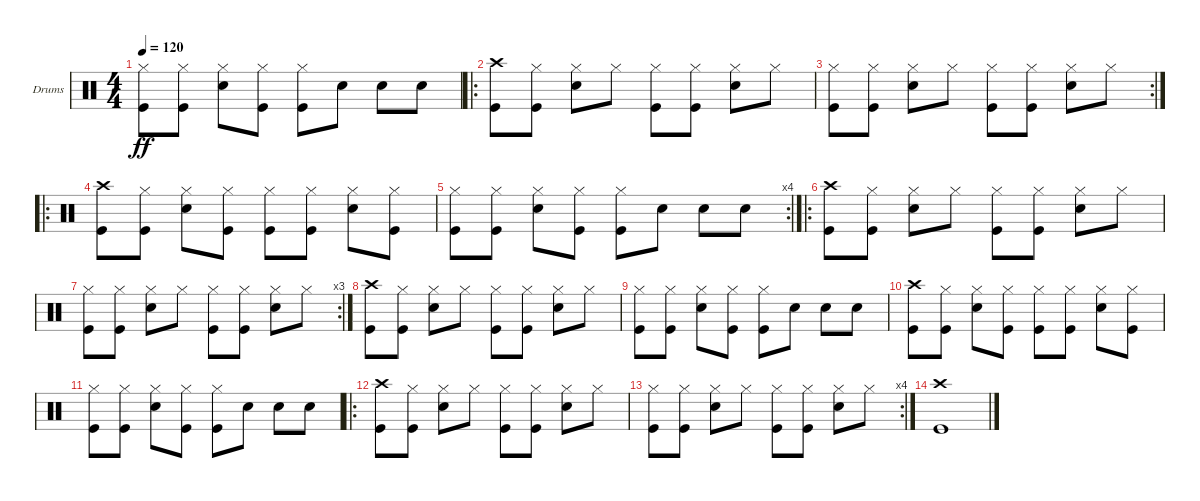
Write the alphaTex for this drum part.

\defaultSystemsLayout 4
\bracketExtendMode groupsimilarinstruments
\firstSystemTrackNameOrientation horizontal
\otherSystemsTrackNameOrientation horizontal
\track ("Drumkit" "Drums") {instrument percussion}
\staff {score}
\articulation defaults
\ts (4 4)
\tempo 120
\clef neutral
\ks c
("Kick (hit)" "Hi-Hat (closed)").8{dy ff} ("Kick (hit)" "Hi-Hat (closed)").8 ("Snare (hit) 2" "Hi-Hat (closed)").8 ("Kick (hit)" "Hi-Hat (closed)").8 ("Kick (hit)" "Hi-Hat (closed)").8 "Snare (hit) 2".8 "Snare (hit) 2".8 "Snare (hit) 2".8 |
\ro
("Kick (hit)" "Crash high (hit)").8 ("Hi-Hat (closed)" "Kick (hit)").8 ("Hi-Hat (closed)" "Snare (hit) 2").8 "Hi-Hat (closed)".8 ("Hi-Hat (closed)" "Kick (hit)").8 ("Hi-Hat (closed)" "Kick (hit)").8 ("Hi-Hat (closed)" "Snare (hit) 2").8 "Hi-Hat (closed)".8 |
\rc 2
("Hi-Hat (closed)" "Kick (hit)").8 ("Hi-Hat (closed)" "Kick (hit)").8 ("Hi-Hat (closed)" "Snare (hit) 2").8 "Hi-Hat (closed)".8 ("Hi-Hat (closed)" "Kick (hit)").8 ("Hi-Hat (closed)" "Kick (hit)").8 ("Hi-Hat (closed)" "Snare (hit) 2").8 "Hi-Hat (closed)".8 |
\ro
("Kick (hit)" "Crash high (hit)").8 ("Kick (hit)" "Hi-Hat (closed)").8 ("Snare (hit) 2" "Hi-Hat (closed)").8 ("Kick (hit)" "Hi-Hat (closed)").8 ("Kick (hit)" "Hi-Hat (closed)").8 ("Kick (hit)" "Hi-Hat (closed)").8 ("Snare (hit) 2" "Hi-Hat (closed)").8 ("Kick (hit)" "Hi-Hat (closed)").8 |
\rc 4
("Kick (hit)" "Hi-Hat (closed)").8 ("Kick (hit)" "Hi-Hat (closed)").8 ("Snare (hit) 2" "Hi-Hat (closed)").8 ("Kick (hit)" "Hi-Hat (closed)").8 ("Kick (hit)" "Hi-Hat (closed)").8 "Snare (hit) 2".8 "Snare (hit) 2".8 "Snare (hit) 2".8 |
\ro
("Kick (hit)" "Crash high (hit)").8 ("Hi-Hat (closed)" "Kick (hit)").8 ("Hi-Hat (closed)" "Snare (hit) 2").8 "Hi-Hat (closed)".8 ("Hi-Hat (closed)" "Kick (hit)").8 ("Hi-Hat (closed)" "Kick (hit)").8 ("Hi-Hat (closed)" "Snare (hit) 2").8 "Hi-Hat (closed)".8 |
\rc 3
("Hi-Hat (closed)" "Kick (hit)").8 ("Hi-Hat (closed)" "Kick (hit)").8 ("Hi-Hat (closed)" "Snare (hit) 2").8 "Hi-Hat (closed)".8 ("Hi-Hat (closed)" "Kick (hit)").8 ("Hi-Hat (closed)" "Kick (hit)").8 ("Hi-Hat (closed)" "Snare (hit) 2").8 "Hi-Hat (closed)".8 |
("Kick (hit)" "Crash high (hit)").8 ("Hi-Hat (closed)" "Kick (hit)").8 ("Hi-Hat (closed)" "Snare (hit) 2").8 "Hi-Hat (closed)".8 ("Hi-Hat (closed)" "Kick (hit)").8 ("Hi-Hat (closed)" "Kick (hit)").8 ("Hi-Hat (closed)" "Snare (hit) 2").8 "Hi-Hat (closed)".8 |
("Kick (hit)" "Hi-Hat (closed)").8 ("Kick (hit)" "Hi-Hat (closed)").8 ("Snare (hit) 2" "Hi-Hat (closed)").8 ("Kick (hit)" "Hi-Hat (closed)").8 ("Kick (hit)" "Hi-Hat (closed)").8 "Snare (hit) 2".8 "Snare (hit) 2".8 "Snare (hit) 2".8 |
("Kick (hit)" "Crash high (hit)").8 ("Kick (hit)" "Hi-Hat (closed)").8 ("Snare (hit) 2" "Hi-Hat (closed)").8 ("Kick (hit)" "Hi-Hat (closed)").8 ("Kick (hit)" "Hi-Hat (closed)").8 ("Kick (hit)" "Hi-Hat (closed)").8 ("Snare (hit) 2" "Hi-Hat (closed)").8 ("Kick (hit)" "Hi-Hat (closed)").8 |
("Kick (hit)" "Hi-Hat (closed)").8 ("Kick (hit)" "Hi-Hat (closed)").8 ("Snare (hit) 2" "Hi-Hat (closed)").8 ("Kick (hit)" "Hi-Hat (closed)").8 ("Kick (hit)" "Hi-Hat (closed)").8 "Snare (hit) 2".8 "Snare (hit) 2".8 "Snare (hit) 2".8 |
\ro
("Kick (hit)" "Crash high (hit)").8 ("Hi-Hat (closed)" "Kick (hit)").8 ("Hi-Hat (closed)" "Snare (hit) 2").8 "Hi-Hat (closed)".8 ("Hi-Hat (closed)" "Kick (hit)").8 ("Hi-Hat (closed)" "Kick (hit)").8 ("Hi-Hat (closed)" "Snare (hit) 2").8 "Hi-Hat (closed)".8 |
\rc 4
("Hi-Hat (closed)" "Kick (hit)").8 ("Hi-Hat (closed)" "Kick (hit)").8 ("Hi-Hat (closed)" "Snare (hit) 2").8 "Hi-Hat (closed)".8 ("Hi-Hat (closed)" "Kick (hit)").8 ("Hi-Hat (closed)" "Kick (hit)").8 ("Hi-Hat (closed)" "Snare (hit) 2").8 "Hi-Hat (closed)".8 |
("Kick (hit)" "Crash high (hit)").1
